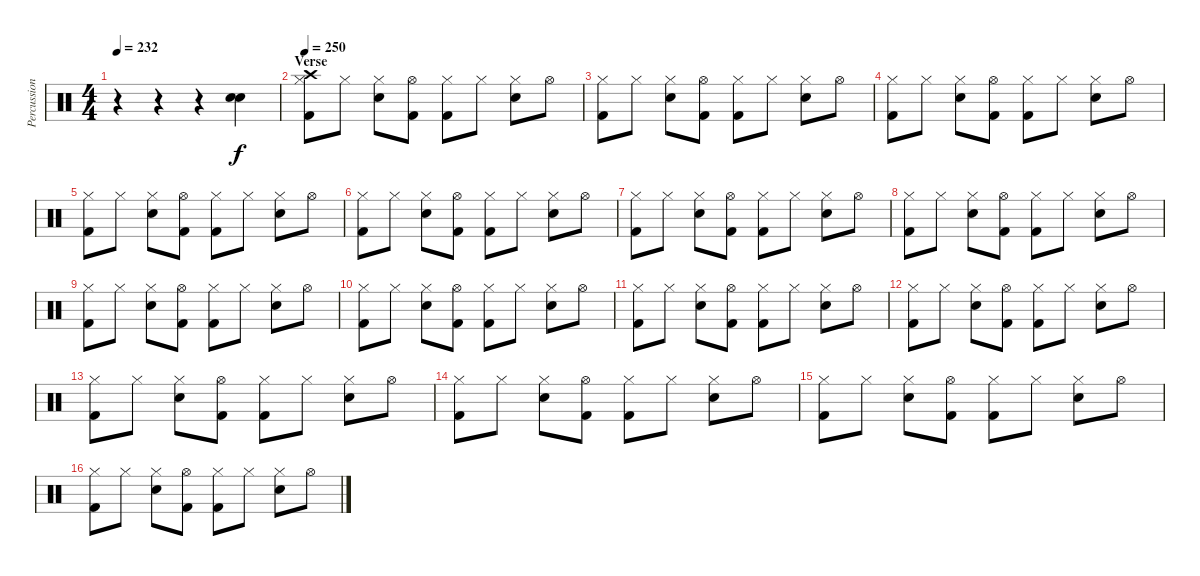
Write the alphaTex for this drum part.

\track ("Percussion" "Percussion") {instrument percussion}
\staff {score}
\articulation defaults
\ts (4 4)
\tempo 232
\clef neutral
\ks c
r.4{dy f} r.4 r.4 ("Electric Snare (hit)" "Electric Snare (hit)").4 |
\section ("" "Verse")
\tempo 250
("Crash high (hit)" "Hi-Hat (closed)" "Kick (hit) 2").8 "Hi-Hat (closed)".8 ("Hi-Hat (closed)" "Electric Snare (hit)").8 ("Hi-Hat (open)" "Kick (hit) 2").8 ("Hi-Hat (closed)" "Kick (hit) 2").8 "Hi-Hat (closed)".8 ("Hi-Hat (closed)" "Electric Snare (hit)").8 "Hi-Hat (open)".8 |
("Hi-Hat (closed)" "Kick (hit) 2").8 "Hi-Hat (closed)".8 ("Hi-Hat (closed)" "Electric Snare (hit)").8 ("Hi-Hat (open)" "Kick (hit) 2").8 ("Hi-Hat (closed)" "Kick (hit) 2").8 "Hi-Hat (closed)".8 ("Hi-Hat (closed)" "Electric Snare (hit)").8 "Hi-Hat (open)".8 |
("Hi-Hat (closed)" "Kick (hit) 2").8 "Hi-Hat (closed)".8 ("Hi-Hat (closed)" "Electric Snare (hit)").8 ("Hi-Hat (open)" "Kick (hit) 2").8 ("Hi-Hat (closed)" "Kick (hit) 2").8 "Hi-Hat (closed)".8 ("Hi-Hat (closed)" "Electric Snare (hit)").8 "Hi-Hat (open)".8 |
("Hi-Hat (closed)" "Kick (hit) 2").8 "Hi-Hat (closed)".8 ("Hi-Hat (closed)" "Electric Snare (hit)").8 ("Hi-Hat (open)" "Kick (hit) 2").8 ("Hi-Hat (closed)" "Kick (hit) 2").8 "Hi-Hat (closed)".8 ("Hi-Hat (closed)" "Electric Snare (hit)").8 "Hi-Hat (open)".8 |
("Hi-Hat (closed)" "Kick (hit) 2").8 "Hi-Hat (closed)".8 ("Hi-Hat (closed)" "Electric Snare (hit)").8 ("Hi-Hat (open)" "Kick (hit) 2").8 ("Hi-Hat (closed)" "Kick (hit) 2").8 "Hi-Hat (closed)".8 ("Hi-Hat (closed)" "Electric Snare (hit)").8 "Hi-Hat (open)".8 |
("Hi-Hat (closed)" "Kick (hit) 2").8 "Hi-Hat (closed)".8 ("Hi-Hat (closed)" "Electric Snare (hit)").8 ("Hi-Hat (open)" "Kick (hit) 2").8 ("Hi-Hat (closed)" "Kick (hit) 2").8 "Hi-Hat (closed)".8 ("Hi-Hat (closed)" "Electric Snare (hit)").8 "Hi-Hat (open)".8 |
("Hi-Hat (closed)" "Kick (hit) 2").8 "Hi-Hat (closed)".8 ("Hi-Hat (closed)" "Electric Snare (hit)").8 ("Hi-Hat (open)" "Kick (hit) 2").8 ("Hi-Hat (closed)" "Kick (hit) 2").8 "Hi-Hat (closed)".8 ("Hi-Hat (closed)" "Electric Snare (hit)").8 "Hi-Hat (open)".8 |
("Hi-Hat (closed)" "Kick (hit) 2").8 "Hi-Hat (closed)".8 ("Hi-Hat (closed)" "Electric Snare (hit)").8 ("Hi-Hat (open)" "Kick (hit) 2").8 ("Hi-Hat (closed)" "Kick (hit) 2").8 "Hi-Hat (closed)".8 ("Hi-Hat (closed)" "Electric Snare (hit)").8 "Hi-Hat (open)".8 |
("Hi-Hat (closed)" "Kick (hit) 2").8 "Hi-Hat (closed)".8 ("Hi-Hat (closed)" "Electric Snare (hit)").8 ("Hi-Hat (open)" "Kick (hit) 2").8 ("Hi-Hat (closed)" "Kick (hit) 2").8 "Hi-Hat (closed)".8 ("Hi-Hat (closed)" "Electric Snare (hit)").8 "Hi-Hat (open)".8 |
("Hi-Hat (closed)" "Kick (hit) 2").8 "Hi-Hat (closed)".8 ("Hi-Hat (closed)" "Electric Snare (hit)").8 ("Hi-Hat (open)" "Kick (hit) 2").8 ("Hi-Hat (closed)" "Kick (hit) 2").8 "Hi-Hat (closed)".8 ("Hi-Hat (closed)" "Electric Snare (hit)").8 "Hi-Hat (open)".8 |
("Hi-Hat (closed)" "Kick (hit) 2").8 "Hi-Hat (closed)".8 ("Hi-Hat (closed)" "Electric Snare (hit)").8 ("Hi-Hat (open)" "Kick (hit) 2").8 ("Hi-Hat (closed)" "Kick (hit) 2").8 "Hi-Hat (closed)".8 ("Hi-Hat (closed)" "Electric Snare (hit)").8 "Hi-Hat (open)".8 |
("Hi-Hat (closed)" "Kick (hit) 2").8 "Hi-Hat (closed)".8 ("Hi-Hat (closed)" "Electric Snare (hit)").8 ("Hi-Hat (open)" "Kick (hit) 2").8 ("Hi-Hat (closed)" "Kick (hit) 2").8 "Hi-Hat (closed)".8 ("Hi-Hat (closed)" "Electric Snare (hit)").8 "Hi-Hat (open)".8 |
("Hi-Hat (closed)" "Kick (hit) 2").8 "Hi-Hat (closed)".8 ("Hi-Hat (closed)" "Electric Snare (hit)").8 ("Hi-Hat (open)" "Kick (hit) 2").8 ("Hi-Hat (closed)" "Kick (hit) 2").8 "Hi-Hat (closed)".8 ("Hi-Hat (closed)" "Electric Snare (hit)").8 "Hi-Hat (open)".8 |
("Hi-Hat (closed)" "Kick (hit) 2").8 "Hi-Hat (closed)".8 ("Hi-Hat (closed)" "Electric Snare (hit)").8 ("Hi-Hat (open)" "Kick (hit) 2").8 ("Hi-Hat (closed)" "Kick (hit) 2").8 "Hi-Hat (closed)".8 ("Hi-Hat (closed)" "Electric Snare (hit)").8 "Hi-Hat (open)".8 |
("Hi-Hat (closed)" "Kick (hit) 2").8 "Hi-Hat (closed)".8 ("Hi-Hat (closed)" "Electric Snare (hit)").8 ("Hi-Hat (open)" "Kick (hit) 2").8 ("Hi-Hat (closed)" "Kick (hit) 2").8 "Hi-Hat (closed)".8 ("Hi-Hat (closed)" "Electric Snare (hit)").8 "Hi-Hat (open)".8
